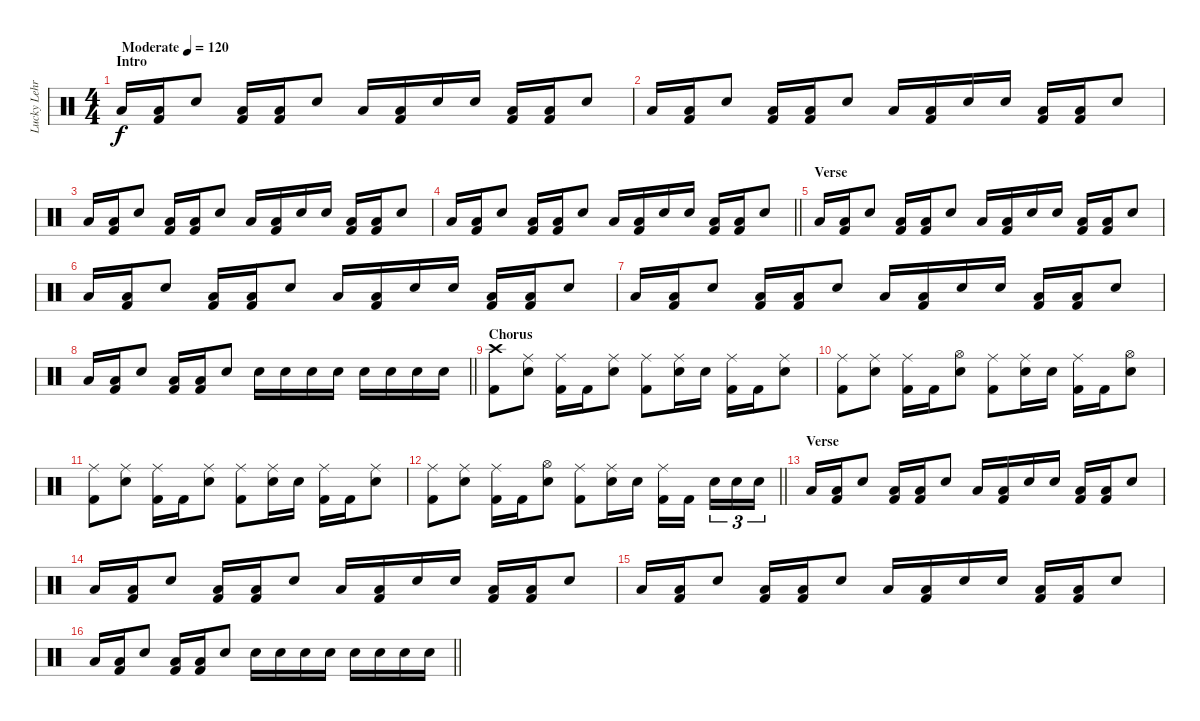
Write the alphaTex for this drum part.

\track ("Lucky Lehrer" "Lucky Lehr") {instrument percussion}
\staff {score}
\articulation defaults
\ts (4 4)
\section ("" "Intro")
\tempo (120 "Moderate")
\clef neutral
\ks c "Low Tom (hit)".16{dy f}
("Low Tom (hit)" "Kick (hit) 2").16 "Electric Snare (hit)".8 ("Low Tom (hit)" "Kick (hit) 2").16 ("Low Tom (hit)" "Kick (hit) 2").16 "Electric Snare (hit)".8 "Low Tom (hit)".16 ("Low Tom (hit)" "Kick (hit) 2").16 "Electric Snare (hit)".16 "Electric Snare (hit)".16 ("Low Tom (hit)" "Kick (hit) 2").16 ("Low Tom (hit)" "Kick (hit) 2").16 "Electric Snare (hit)".8 |
"Low Tom (hit)".16 ("Low Tom (hit)" "Kick (hit) 2").16 "Electric Snare (hit)".8 ("Low Tom (hit)" "Kick (hit) 2").16 ("Low Tom (hit)" "Kick (hit) 2").16 "Electric Snare (hit)".8 "Low Tom (hit)".16 ("Low Tom (hit)" "Kick (hit) 2").16 "Electric Snare (hit)".16 "Electric Snare (hit)".16 ("Low Tom (hit)" "Kick (hit) 2").16 ("Low Tom (hit)" "Kick (hit) 2").16 "Electric Snare (hit)".8 |
"Low Tom (hit)".16 ("Low Tom (hit)" "Kick (hit) 2").16 "Electric Snare (hit)".8 ("Low Tom (hit)" "Kick (hit) 2").16 ("Low Tom (hit)" "Kick (hit) 2").16 "Electric Snare (hit)".8 "Low Tom (hit)".16 ("Low Tom (hit)" "Kick (hit) 2").16 "Electric Snare (hit)".16 "Electric Snare (hit)".16 ("Low Tom (hit)" "Kick (hit) 2").16 ("Low Tom (hit)" "Kick (hit) 2").16 "Electric Snare (hit)".8 |
\barLineRight lightlight "Low Tom (hit)".16
("Low Tom (hit)" "Kick (hit) 2").16 "Electric Snare (hit)".8 ("Low Tom (hit)" "Kick (hit) 2").16 ("Low Tom (hit)" "Kick (hit) 2").16 "Electric Snare (hit)".8 "Low Tom (hit)".16 ("Low Tom (hit)" "Kick (hit) 2").16 "Electric Snare (hit)".16 "Electric Snare (hit)".16 ("Low Tom (hit)" "Kick (hit) 2").16 ("Low Tom (hit)" "Kick (hit) 2").16 "Electric Snare (hit)".8 |
\section ("" "Verse")
"Low Tom (hit)".16 ("Low Tom (hit)" "Kick (hit) 2").16 "Electric Snare (hit)".8 ("Low Tom (hit)" "Kick (hit) 2").16 ("Low Tom (hit)" "Kick (hit) 2").16 "Electric Snare (hit)".8 "Low Tom (hit)".16 ("Low Tom (hit)" "Kick (hit) 2").16 "Electric Snare (hit)".16 "Electric Snare (hit)".16 ("Low Tom (hit)" "Kick (hit) 2").16 ("Low Tom (hit)" "Kick (hit) 2").16 "Electric Snare (hit)".8 |
"Low Tom (hit)".16 ("Low Tom (hit)" "Kick (hit) 2").16 "Electric Snare (hit)".8 ("Low Tom (hit)" "Kick (hit) 2").16 ("Low Tom (hit)" "Kick (hit) 2").16 "Electric Snare (hit)".8 "Low Tom (hit)".16 ("Low Tom (hit)" "Kick (hit) 2").16 "Electric Snare (hit)".16 "Electric Snare (hit)".16 ("Low Tom (hit)" "Kick (hit) 2").16 ("Low Tom (hit)" "Kick (hit) 2").16 "Electric Snare (hit)".8 |
"Low Tom (hit)".16 ("Low Tom (hit)" "Kick (hit) 2").16 "Electric Snare (hit)".8 ("Low Tom (hit)" "Kick (hit) 2").16 ("Low Tom (hit)" "Kick (hit) 2").16 "Electric Snare (hit)".8 "Low Tom (hit)".16 ("Low Tom (hit)" "Kick (hit) 2").16 "Electric Snare (hit)".16 "Electric Snare (hit)".16 ("Low Tom (hit)" "Kick (hit) 2").16 ("Low Tom (hit)" "Kick (hit) 2").16 "Electric Snare (hit)".8 |
\barLineRight lightlight "Low Tom (hit)".16
("Low Tom (hit)" "Kick (hit) 2").16 "Electric Snare (hit)".8 ("Low Tom (hit)" "Kick (hit) 2").16 ("Low Tom (hit)" "Kick (hit) 2").16 "Electric Snare (hit)".8 "Electric Snare (hit)".16 "Electric Snare (hit)".16 "Electric Snare (hit)".16 "Electric Snare (hit)".16 "Electric Snare (hit)".16 "Electric Snare (hit)".16 "Electric Snare (hit)".16 "Electric Snare (hit)".16 |
\section ("" "Chorus")
("Crash high (hit)" "Kick (hit) 2").8 ("Ride (middle)" "Electric Snare (hit)").8 ("Ride (middle)" "Kick (hit) 2").16 "Kick (hit) 2".16 ("Ride (middle)" "Electric Snare (hit)").8 ("Ride (middle)" "Kick (hit) 2").8 ("Ride (middle)" "Electric Snare (hit)").16 "Electric Snare (hit)".16 ("Ride (middle)" "Kick (hit) 2").16 "Kick (hit) 2".16 ("Ride (middle)" "Electric Snare (hit)").8 |
("Ride (middle)" "Kick (hit) 2").8 ("Ride (middle)" "Electric Snare (hit)").8 ("Ride (middle)" "Kick (hit) 2").16 "Kick (hit) 2".16 ("Hi-Hat (open)" "Electric Snare (hit)").8 ("Ride (middle)" "Kick (hit) 2").8 ("Ride (middle)" "Electric Snare (hit)").16 "Electric Snare (hit)".16 ("Ride (middle)" "Kick (hit) 2").16 "Kick (hit) 2".16 ("Hi-Hat (open)" "Electric Snare (hit)").8 |
("Ride (middle)" "Kick (hit) 2").8 ("Ride (middle)" "Electric Snare (hit)").8 ("Ride (middle)" "Kick (hit) 2").16 "Kick (hit) 2".16 ("Ride (middle)" "Electric Snare (hit)").8 ("Ride (middle)" "Kick (hit) 2").8 ("Ride (middle)" "Electric Snare (hit)").16 "Electric Snare (hit)".16 ("Ride (middle)" "Kick (hit) 2").16 "Kick (hit) 2".16 ("Ride (middle)" "Electric Snare (hit)").8 |
\barLineRight lightlight
("Ride (middle)" "Kick (hit) 2").8 ("Ride (middle)" "Electric Snare (hit)").8 ("Ride (middle)" "Kick (hit) 2").16 "Kick (hit) 2".16 ("Hi-Hat (open)" "Electric Snare (hit)").8 ("Ride (middle)" "Kick (hit) 2").8 ("Ride (middle)" "Electric Snare (hit)").16 "Electric Snare (hit)".16 ("Ride (middle)" "Kick (hit) 2").16 "Kick (hit) 2".16{beam splitsecondary} "Electric Snare (hit)".16{tu (3 2)} "Electric Snare (hit)".16{tu (3 2)} "Electric Snare (hit)".16{tu (3 2)} |
\section ("" "Verse")
"Low Tom (hit)".16 ("Low Tom (hit)" "Kick (hit) 2").16 "Electric Snare (hit)".8 ("Low Tom (hit)" "Kick (hit) 2").16 ("Low Tom (hit)" "Kick (hit) 2").16 "Electric Snare (hit)".8 "Low Tom (hit)".16 ("Low Tom (hit)" "Kick (hit) 2").16 "Electric Snare (hit)".16 "Electric Snare (hit)".16 ("Low Tom (hit)" "Kick (hit) 2").16 ("Low Tom (hit)" "Kick (hit) 2").16 "Electric Snare (hit)".8 |
"Low Tom (hit)".16 ("Low Tom (hit)" "Kick (hit) 2").16 "Electric Snare (hit)".8 ("Low Tom (hit)" "Kick (hit) 2").16 ("Low Tom (hit)" "Kick (hit) 2").16 "Electric Snare (hit)".8 "Low Tom (hit)".16 ("Low Tom (hit)" "Kick (hit) 2").16 "Electric Snare (hit)".16 "Electric Snare (hit)".16 ("Low Tom (hit)" "Kick (hit) 2").16 ("Low Tom (hit)" "Kick (hit) 2").16 "Electric Snare (hit)".8 |
"Low Tom (hit)".16 ("Low Tom (hit)" "Kick (hit) 2").16 "Electric Snare (hit)".8 ("Low Tom (hit)" "Kick (hit) 2").16 ("Low Tom (hit)" "Kick (hit) 2").16 "Electric Snare (hit)".8 "Low Tom (hit)".16 ("Low Tom (hit)" "Kick (hit) 2").16 "Electric Snare (hit)".16 "Electric Snare (hit)".16 ("Low Tom (hit)" "Kick (hit) 2").16 ("Low Tom (hit)" "Kick (hit) 2").16 "Electric Snare (hit)".8 |
\barLineRight lightlight "Low Tom (hit)".16
("Low Tom (hit)" "Kick (hit) 2").16 "Electric Snare (hit)".8 ("Low Tom (hit)" "Kick (hit) 2").16 ("Low Tom (hit)" "Kick (hit) 2").16 "Electric Snare (hit)".8 "Electric Snare (hit)".16 "Electric Snare (hit)".16 "Electric Snare (hit)".16 "Electric Snare (hit)".16 "Electric Snare (hit)".16 "Electric Snare (hit)".16 "Electric Snare (hit)".16 "Electric Snare (hit)".16
